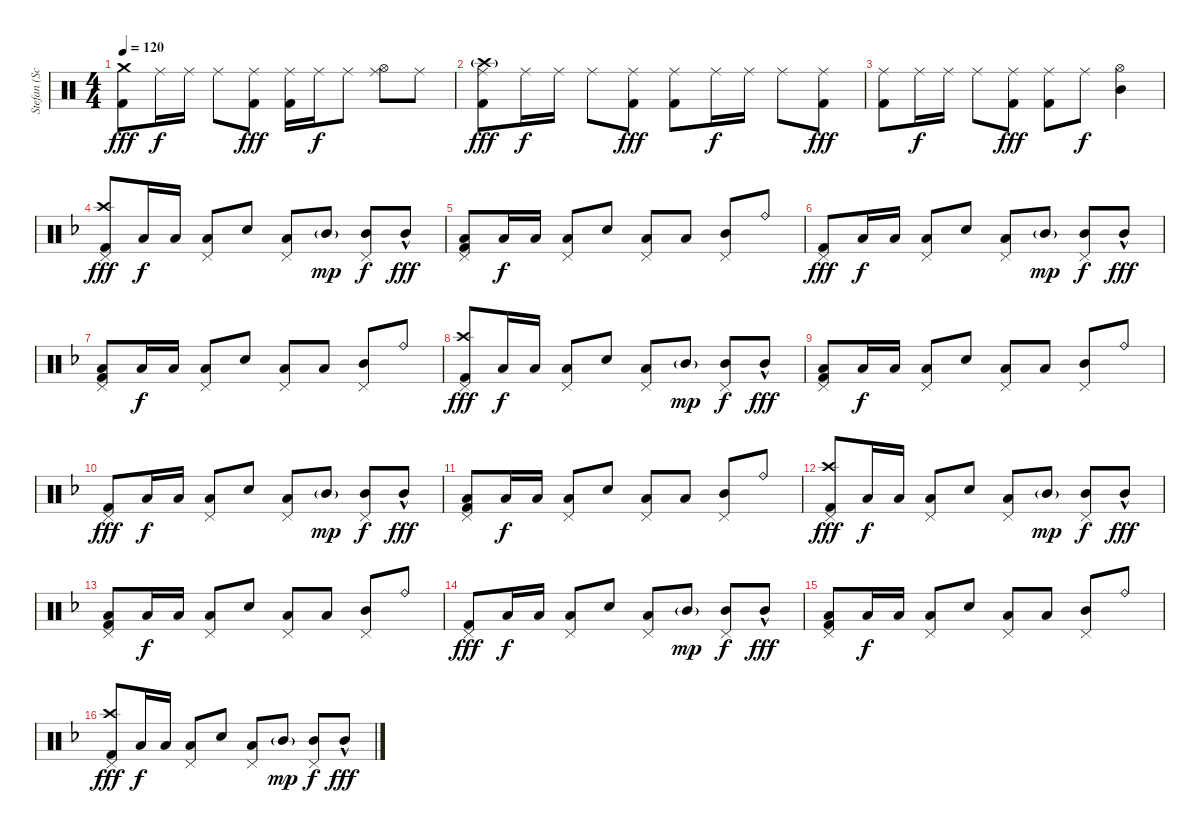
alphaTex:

\track ("Stefan (Schlagzeug)" "Stefan (Sc") {instrument percussion}
\staff {score}
\articulation defaults
\ts (4 4)
\tempo 120
\clef neutral
\ks c
("Crash medium (hit)" "Kick (hit) 2").8{dy fff} "Ride (middle)".16{dy f} "Ride (middle)".16 "Ride (middle)".8 ("Ride (middle)" "Kick (hit) 2").8{dy fff} ("Ride (middle)" "Kick (hit) 2").16 "Ride (middle)".16{dy f} "Ride (middle)".8 ("Ride (middle)" "Hi-Hat (open)").8 "Ride (middle)".8 |
("Ride (middle)" "Crash high (hit)"{g} "Kick (hit) 2").8{dy fff} "Ride (middle)".16{dy f} "Ride (middle)".16 "Ride (middle)".8 ("Ride (middle)" "Kick (hit) 2").8{dy fff} ("Ride (middle)" "Kick (hit) 2").8 "Ride (middle)".16{dy f} "Ride (middle)".16 "Ride (middle)".8 ("Ride (middle)" "Kick (hit) 2").8{dy fff} |
("Ride (middle)" "Kick (hit) 2").8 "Ride (middle)".16{dy f} "Ride (middle)".16 "Ride (middle)".8 ("Ride (middle)" "Kick (hit) 2").8{dy fff} ("Ride (middle)" "Kick (hit) 2").8 "Ride (middle)".8{dy f} ("Hi-Hat (open)" "Mid Tom (hit)").4 |
\ks f
("Crash high (hit)" "Kick (hit) 2" "Pedal Hi-Hat (hit)").8{dy fff} "Low Tom (hit)".16{dy f} "Low Tom (hit)".16 ("Low Tom (hit)" "Pedal Hi-Hat (hit)").8 "Snare (hit) 2".8 ("Low Tom (hit)" "Pedal Hi-Hat (hit)").8 "Mid Tom (hit)"{g}.8{dy mp} ("Mid Tom (hit)" "Pedal Hi-Hat (hit)").8{dy f} "Mid Tom (hit)"{hac}.8{dy fff} |
("Low Tom (hit)" "Kick (hit) 2" "Pedal Hi-Hat (hit)").8 "Low Tom (hit)".16{dy f} "Low Tom (hit)".16 ("Low Tom (hit)" "Pedal Hi-Hat (hit)").8 "Snare (hit) 2".8 ("Low Tom (hit)" "Pedal Hi-Hat (hit)").8 "Low Tom (hit)".8 ("Mid Tom (hit)" "Pedal Hi-Hat (hit)").8 "Ride (bell)".8 |
("Kick (hit) 2" "Pedal Hi-Hat (hit)").8{dy fff} "Low Tom (hit)".16{dy f} "Low Tom (hit)".16 ("Low Tom (hit)" "Pedal Hi-Hat (hit)").8 "Snare (hit) 2".8 ("Low Tom (hit)" "Pedal Hi-Hat (hit)").8 "Mid Tom (hit)"{g}.8{dy mp} ("Mid Tom (hit)" "Pedal Hi-Hat (hit)").8{dy f} "Mid Tom (hit)"{hac}.8{dy fff} |
("Low Tom (hit)" "Kick (hit) 2" "Pedal Hi-Hat (hit)").8 "Low Tom (hit)".16{dy f} "Low Tom (hit)".16 ("Low Tom (hit)" "Pedal Hi-Hat (hit)").8 "Snare (hit) 2".8 ("Low Tom (hit)" "Pedal Hi-Hat (hit)").8 "Low Tom (hit)".8 ("Mid Tom (hit)" "Pedal Hi-Hat (hit)").8 "Ride (bell)".8 |
("Crash high (hit)" "Kick (hit) 2" "Pedal Hi-Hat (hit)").8{dy fff} "Low Tom (hit)".16{dy f} "Low Tom (hit)".16 ("Low Tom (hit)" "Pedal Hi-Hat (hit)").8 "Snare (hit) 2".8 ("Low Tom (hit)" "Pedal Hi-Hat (hit)").8 "Mid Tom (hit)"{g}.8{dy mp} ("Mid Tom (hit)" "Pedal Hi-Hat (hit)").8{dy f} "Mid Tom (hit)"{hac}.8{dy fff} |
("Low Tom (hit)" "Kick (hit) 2" "Pedal Hi-Hat (hit)").8 "Low Tom (hit)".16{dy f} "Low Tom (hit)".16 ("Low Tom (hit)" "Pedal Hi-Hat (hit)").8 "Snare (hit) 2".8 ("Low Tom (hit)" "Pedal Hi-Hat (hit)").8 "Low Tom (hit)".8 ("Mid Tom (hit)" "Pedal Hi-Hat (hit)").8 "Ride (bell)".8 |
("Kick (hit) 2" "Pedal Hi-Hat (hit)").8{dy fff} "Low Tom (hit)".16{dy f} "Low Tom (hit)".16 ("Low Tom (hit)" "Pedal Hi-Hat (hit)").8 "Snare (hit) 2".8 ("Low Tom (hit)" "Pedal Hi-Hat (hit)").8 "Mid Tom (hit)"{g}.8{dy mp} ("Mid Tom (hit)" "Pedal Hi-Hat (hit)").8{dy f} "Mid Tom (hit)"{hac}.8{dy fff} |
("Low Tom (hit)" "Kick (hit) 2" "Pedal Hi-Hat (hit)").8 "Low Tom (hit)".16{dy f} "Low Tom (hit)".16 ("Low Tom (hit)" "Pedal Hi-Hat (hit)").8 "Snare (hit) 2".8 ("Low Tom (hit)" "Pedal Hi-Hat (hit)").8 "Low Tom (hit)".8 ("Mid Tom (hit)" "Pedal Hi-Hat (hit)").8 "Ride (bell)".8 |
("Crash high (hit)" "Kick (hit) 2" "Pedal Hi-Hat (hit)").8{dy fff} "Low Tom (hit)".16{dy f} "Low Tom (hit)".16 ("Low Tom (hit)" "Pedal Hi-Hat (hit)").8 "Snare (hit) 2".8 ("Low Tom (hit)" "Pedal Hi-Hat (hit)").8 "Mid Tom (hit)"{g}.8{dy mp} ("Mid Tom (hit)" "Pedal Hi-Hat (hit)").8{dy f} "Mid Tom (hit)"{hac}.8{dy fff} |
("Low Tom (hit)" "Kick (hit) 2" "Pedal Hi-Hat (hit)").8 "Low Tom (hit)".16{dy f} "Low Tom (hit)".16 ("Low Tom (hit)" "Pedal Hi-Hat (hit)").8 "Snare (hit) 2".8 ("Low Tom (hit)" "Pedal Hi-Hat (hit)").8 "Low Tom (hit)".8 ("Mid Tom (hit)" "Pedal Hi-Hat (hit)").8 "Ride (bell)".8 |
("Kick (hit) 2" "Pedal Hi-Hat (hit)").8{dy fff} "Low Tom (hit)".16{dy f} "Low Tom (hit)".16 ("Low Tom (hit)" "Pedal Hi-Hat (hit)").8 "Snare (hit) 2".8 ("Low Tom (hit)" "Pedal Hi-Hat (hit)").8 "Mid Tom (hit)"{g}.8{dy mp} ("Mid Tom (hit)" "Pedal Hi-Hat (hit)").8{dy f} "Mid Tom (hit)"{hac}.8{dy fff} |
("Low Tom (hit)" "Kick (hit) 2" "Pedal Hi-Hat (hit)").8 "Low Tom (hit)".16{dy f} "Low Tom (hit)".16 ("Low Tom (hit)" "Pedal Hi-Hat (hit)").8 "Snare (hit) 2".8 ("Low Tom (hit)" "Pedal Hi-Hat (hit)").8 "Low Tom (hit)".8 ("Mid Tom (hit)" "Pedal Hi-Hat (hit)").8 "Ride (bell)".8 |
("Crash high (hit)" "Kick (hit) 2" "Pedal Hi-Hat (hit)").8{dy fff} "Low Tom (hit)".16{dy f} "Low Tom (hit)".16 ("Low Tom (hit)" "Pedal Hi-Hat (hit)").8 "Snare (hit) 2".8 ("Low Tom (hit)" "Pedal Hi-Hat (hit)").8 "Mid Tom (hit)"{g}.8{dy mp} ("Mid Tom (hit)" "Pedal Hi-Hat (hit)").8{dy f} "Mid Tom (hit)"{hac}.8{dy fff}
